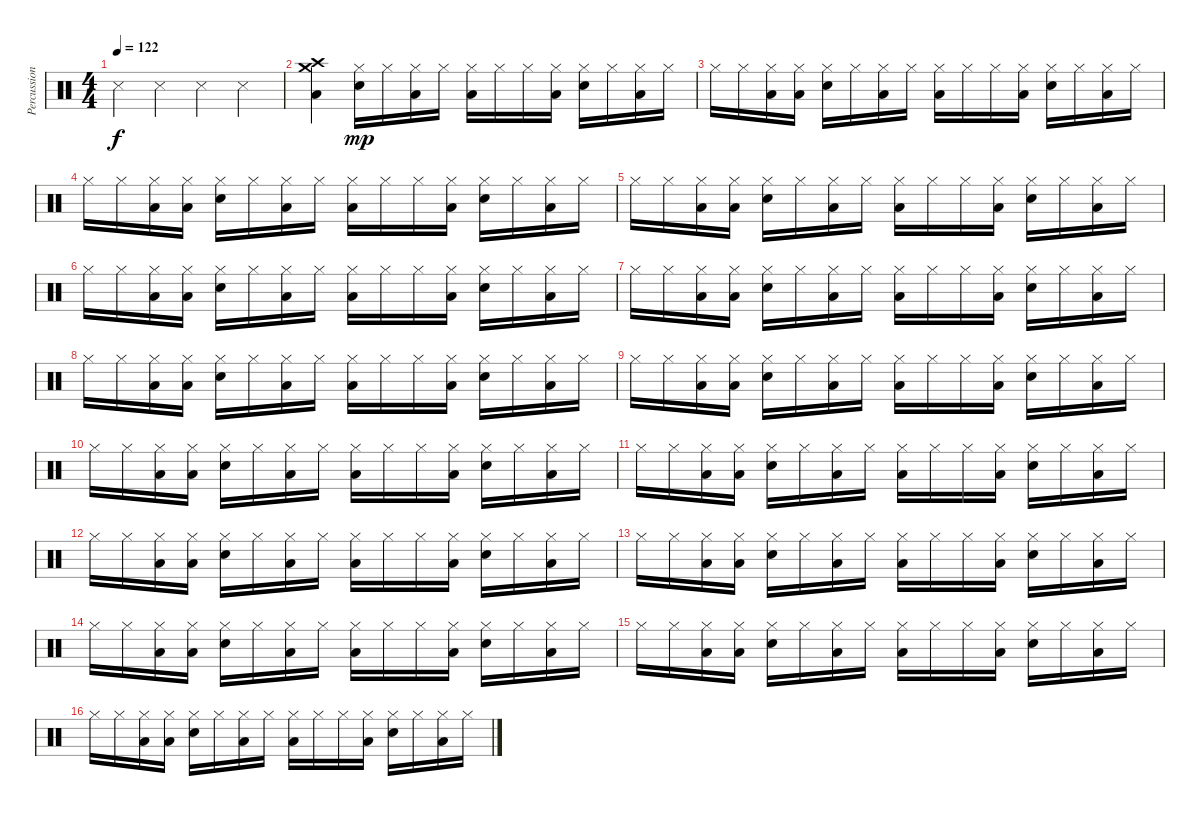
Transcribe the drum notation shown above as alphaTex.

\track ("Percussions" "Percussion") {instrument percussion}
\staff {score}
\articulation defaults
\ts (4 4)
\tempo 122
\clef neutral
\ks c "Metronome (hit)".4{dy f} "Metronome (hit)".4 "Metronome (hit)".4 "Metronome (hit)".4
|
("Low Floor Tom (hit)" "Crash high (hit)" "Crash medium (hit)").4 ("Snare (hit) 2" "Hi-Hat (closed)").16{dy mp} "Hi-Hat (closed)".16 ("Low Floor Tom (hit)" "Hi-Hat (closed)").16 "Hi-Hat (closed)".16 ("Low Floor Tom (hit)" "Hi-Hat (closed)").16 "Hi-Hat (closed)".16 "Hi-Hat (closed)".16 ("Low Floor Tom (hit)" "Hi-Hat (closed)").16 ("Snare (hit) 2" "Hi-Hat (closed)").16 "Hi-Hat (closed)".16 ("Low Floor Tom (hit)" "Hi-Hat (closed)").16 "Hi-Hat (closed)".16 |
"Hi-Hat (closed)".16 "Hi-Hat (closed)".16 ("Low Floor Tom (hit)" "Hi-Hat (closed)").16 ("Low Floor Tom (hit)" "Hi-Hat (closed)").16 ("Snare (hit) 2" "Hi-Hat (closed)").16 "Hi-Hat (closed)".16 ("Low Floor Tom (hit)" "Hi-Hat (closed)").16 "Hi-Hat (closed)".16 ("Low Floor Tom (hit)" "Hi-Hat (closed)").16 "Hi-Hat (closed)".16 "Hi-Hat (closed)".16 ("Low Floor Tom (hit)" "Hi-Hat (closed)").16 ("Snare (hit) 2" "Hi-Hat (closed)").16 "Hi-Hat (closed)".16 ("Low Floor Tom (hit)" "Hi-Hat (closed)").16 "Hi-Hat (closed)".16 |
"Hi-Hat (closed)".16 "Hi-Hat (closed)".16 ("Low Floor Tom (hit)" "Hi-Hat (closed)").16 ("Low Floor Tom (hit)" "Hi-Hat (closed)").16 ("Snare (hit) 2" "Hi-Hat (closed)").16 "Hi-Hat (closed)".16 ("Low Floor Tom (hit)" "Hi-Hat (closed)").16 "Hi-Hat (closed)".16 ("Low Floor Tom (hit)" "Hi-Hat (closed)").16 "Hi-Hat (closed)".16 "Hi-Hat (closed)".16 ("Low Floor Tom (hit)" "Hi-Hat (closed)").16 ("Snare (hit) 2" "Hi-Hat (closed)").16 "Hi-Hat (closed)".16 ("Low Floor Tom (hit)" "Hi-Hat (closed)").16 "Hi-Hat (closed)".16 |
"Hi-Hat (closed)".16 "Hi-Hat (closed)".16 ("Low Floor Tom (hit)" "Hi-Hat (closed)").16 ("Low Floor Tom (hit)" "Hi-Hat (closed)").16 ("Snare (hit) 2" "Hi-Hat (closed)").16 "Hi-Hat (closed)".16 ("Low Floor Tom (hit)" "Hi-Hat (closed)").16 "Hi-Hat (closed)".16 ("Low Floor Tom (hit)" "Hi-Hat (closed)").16 "Hi-Hat (closed)".16 "Hi-Hat (closed)".16 ("Low Floor Tom (hit)" "Hi-Hat (closed)").16 ("Snare (hit) 2" "Hi-Hat (closed)").16 "Hi-Hat (closed)".16 ("Low Floor Tom (hit)" "Hi-Hat (closed)").16 "Hi-Hat (closed)".16 |
"Hi-Hat (closed)".16 "Hi-Hat (closed)".16 ("Low Floor Tom (hit)" "Hi-Hat (closed)").16 ("Low Floor Tom (hit)" "Hi-Hat (closed)").16 ("Snare (hit) 2" "Hi-Hat (closed)").16 "Hi-Hat (closed)".16 ("Low Floor Tom (hit)" "Hi-Hat (closed)").16 "Hi-Hat (closed)".16 ("Low Floor Tom (hit)" "Hi-Hat (closed)").16 "Hi-Hat (closed)".16 "Hi-Hat (closed)".16 ("Low Floor Tom (hit)" "Hi-Hat (closed)").16 ("Snare (hit) 2" "Hi-Hat (closed)").16 "Hi-Hat (closed)".16 ("Low Floor Tom (hit)" "Hi-Hat (closed)").16 "Hi-Hat (closed)".16 |
"Hi-Hat (closed)".16 "Hi-Hat (closed)".16 ("Low Floor Tom (hit)" "Hi-Hat (closed)").16 ("Low Floor Tom (hit)" "Hi-Hat (closed)").16 ("Snare (hit) 2" "Hi-Hat (closed)").16 "Hi-Hat (closed)".16 ("Low Floor Tom (hit)" "Hi-Hat (closed)").16 "Hi-Hat (closed)".16 ("Low Floor Tom (hit)" "Hi-Hat (closed)").16 "Hi-Hat (closed)".16 "Hi-Hat (closed)".16 ("Low Floor Tom (hit)" "Hi-Hat (closed)").16 ("Snare (hit) 2" "Hi-Hat (closed)").16 "Hi-Hat (closed)".16 ("Low Floor Tom (hit)" "Hi-Hat (closed)").16 "Hi-Hat (closed)".16 |
"Hi-Hat (closed)".16 "Hi-Hat (closed)".16 ("Low Floor Tom (hit)" "Hi-Hat (closed)").16 ("Low Floor Tom (hit)" "Hi-Hat (closed)").16 ("Snare (hit) 2" "Hi-Hat (closed)").16 "Hi-Hat (closed)".16 ("Low Floor Tom (hit)" "Hi-Hat (closed)").16 "Hi-Hat (closed)".16 ("Low Floor Tom (hit)" "Hi-Hat (closed)").16 "Hi-Hat (closed)".16 "Hi-Hat (closed)".16 ("Low Floor Tom (hit)" "Hi-Hat (closed)").16 ("Snare (hit) 2" "Hi-Hat (closed)").16 "Hi-Hat (closed)".16 ("Low Floor Tom (hit)" "Hi-Hat (closed)").16 "Hi-Hat (closed)".16 |
"Hi-Hat (closed)".16 "Hi-Hat (closed)".16 ("Low Floor Tom (hit)" "Hi-Hat (closed)").16 ("Low Floor Tom (hit)" "Hi-Hat (closed)").16 ("Snare (hit) 2" "Hi-Hat (closed)").16 "Hi-Hat (closed)".16 ("Low Floor Tom (hit)" "Hi-Hat (closed)").16 "Hi-Hat (closed)".16 ("Low Floor Tom (hit)" "Hi-Hat (closed)").16 "Hi-Hat (closed)".16 "Hi-Hat (closed)".16 ("Low Floor Tom (hit)" "Hi-Hat (closed)").16 ("Snare (hit) 2" "Hi-Hat (closed)").16 "Hi-Hat (closed)".16 ("Low Floor Tom (hit)" "Hi-Hat (closed)").16 "Hi-Hat (closed)".16 |
"Hi-Hat (closed)".16 "Hi-Hat (closed)".16 ("Low Floor Tom (hit)" "Hi-Hat (closed)").16 ("Low Floor Tom (hit)" "Hi-Hat (closed)").16 ("Snare (hit) 2" "Hi-Hat (closed)").16 "Hi-Hat (closed)".16 ("Low Floor Tom (hit)" "Hi-Hat (closed)").16 "Hi-Hat (closed)".16 ("Low Floor Tom (hit)" "Hi-Hat (closed)").16 "Hi-Hat (closed)".16 "Hi-Hat (closed)".16 ("Low Floor Tom (hit)" "Hi-Hat (closed)").16 ("Snare (hit) 2" "Hi-Hat (closed)").16 "Hi-Hat (closed)".16 ("Low Floor Tom (hit)" "Hi-Hat (closed)").16 "Hi-Hat (closed)".16 |
"Hi-Hat (closed)".16 "Hi-Hat (closed)".16 ("Low Floor Tom (hit)" "Hi-Hat (closed)").16 ("Low Floor Tom (hit)" "Hi-Hat (closed)").16 ("Snare (hit) 2" "Hi-Hat (closed)").16 "Hi-Hat (closed)".16 ("Low Floor Tom (hit)" "Hi-Hat (closed)").16 "Hi-Hat (closed)".16 ("Low Floor Tom (hit)" "Hi-Hat (closed)").16 "Hi-Hat (closed)".16 "Hi-Hat (closed)".16 ("Low Floor Tom (hit)" "Hi-Hat (closed)").16 ("Snare (hit) 2" "Hi-Hat (closed)").16 "Hi-Hat (closed)".16 ("Low Floor Tom (hit)" "Hi-Hat (closed)").16 "Hi-Hat (closed)".16 |
"Hi-Hat (closed)".16 "Hi-Hat (closed)".16 ("Low Floor Tom (hit)" "Hi-Hat (closed)").16 ("Low Floor Tom (hit)" "Hi-Hat (closed)").16 ("Snare (hit) 2" "Hi-Hat (closed)").16 "Hi-Hat (closed)".16 ("Low Floor Tom (hit)" "Hi-Hat (closed)").16 "Hi-Hat (closed)".16 ("Low Floor Tom (hit)" "Hi-Hat (closed)").16 "Hi-Hat (closed)".16 "Hi-Hat (closed)".16 ("Low Floor Tom (hit)" "Hi-Hat (closed)").16 ("Snare (hit) 2" "Hi-Hat (closed)").16 "Hi-Hat (closed)".16 ("Low Floor Tom (hit)" "Hi-Hat (closed)").16 "Hi-Hat (closed)".16 |
"Hi-Hat (closed)".16 "Hi-Hat (closed)".16 ("Low Floor Tom (hit)" "Hi-Hat (closed)").16 ("Low Floor Tom (hit)" "Hi-Hat (closed)").16 ("Snare (hit) 2" "Hi-Hat (closed)").16 "Hi-Hat (closed)".16 ("Low Floor Tom (hit)" "Hi-Hat (closed)").16 "Hi-Hat (closed)".16 ("Low Floor Tom (hit)" "Hi-Hat (closed)").16 "Hi-Hat (closed)".16 "Hi-Hat (closed)".16 ("Low Floor Tom (hit)" "Hi-Hat (closed)").16 ("Snare (hit) 2" "Hi-Hat (closed)").16 "Hi-Hat (closed)".16 ("Low Floor Tom (hit)" "Hi-Hat (closed)").16 "Hi-Hat (closed)".16 |
"Hi-Hat (closed)".16 "Hi-Hat (closed)".16 ("Low Floor Tom (hit)" "Hi-Hat (closed)").16 ("Low Floor Tom (hit)" "Hi-Hat (closed)").16 ("Snare (hit) 2" "Hi-Hat (closed)").16 "Hi-Hat (closed)".16 ("Low Floor Tom (hit)" "Hi-Hat (closed)").16 "Hi-Hat (closed)".16 ("Low Floor Tom (hit)" "Hi-Hat (closed)").16 "Hi-Hat (closed)".16 "Hi-Hat (closed)".16 ("Low Floor Tom (hit)" "Hi-Hat (closed)").16 ("Snare (hit) 2" "Hi-Hat (closed)").16 "Hi-Hat (closed)".16 ("Low Floor Tom (hit)" "Hi-Hat (closed)").16 "Hi-Hat (closed)".16 |
"Hi-Hat (closed)".16 "Hi-Hat (closed)".16 ("Low Floor Tom (hit)" "Hi-Hat (closed)").16 ("Low Floor Tom (hit)" "Hi-Hat (closed)").16 ("Snare (hit) 2" "Hi-Hat (closed)").16 "Hi-Hat (closed)".16 ("Low Floor Tom (hit)" "Hi-Hat (closed)").16 "Hi-Hat (closed)".16 ("Low Floor Tom (hit)" "Hi-Hat (closed)").16 "Hi-Hat (closed)".16 "Hi-Hat (closed)".16 ("Low Floor Tom (hit)" "Hi-Hat (closed)").16 ("Snare (hit) 2" "Hi-Hat (closed)").16 "Hi-Hat (closed)".16 ("Low Floor Tom (hit)" "Hi-Hat (closed)").16 "Hi-Hat (closed)".16 |
"Hi-Hat (closed)".16 "Hi-Hat (closed)".16 ("Low Floor Tom (hit)" "Hi-Hat (closed)").16 ("Low Floor Tom (hit)" "Hi-Hat (closed)").16 ("Snare (hit) 2" "Hi-Hat (closed)").16 "Hi-Hat (closed)".16 ("Low Floor Tom (hit)" "Hi-Hat (closed)").16 "Hi-Hat (closed)".16 ("Low Floor Tom (hit)" "Hi-Hat (closed)").16 "Hi-Hat (closed)".16 "Hi-Hat (closed)".16 ("Low Floor Tom (hit)" "Hi-Hat (closed)").16 ("Snare (hit) 2" "Hi-Hat (closed)").16 "Hi-Hat (closed)".16 ("Low Floor Tom (hit)" "Hi-Hat (closed)").16 "Hi-Hat (closed)".16
